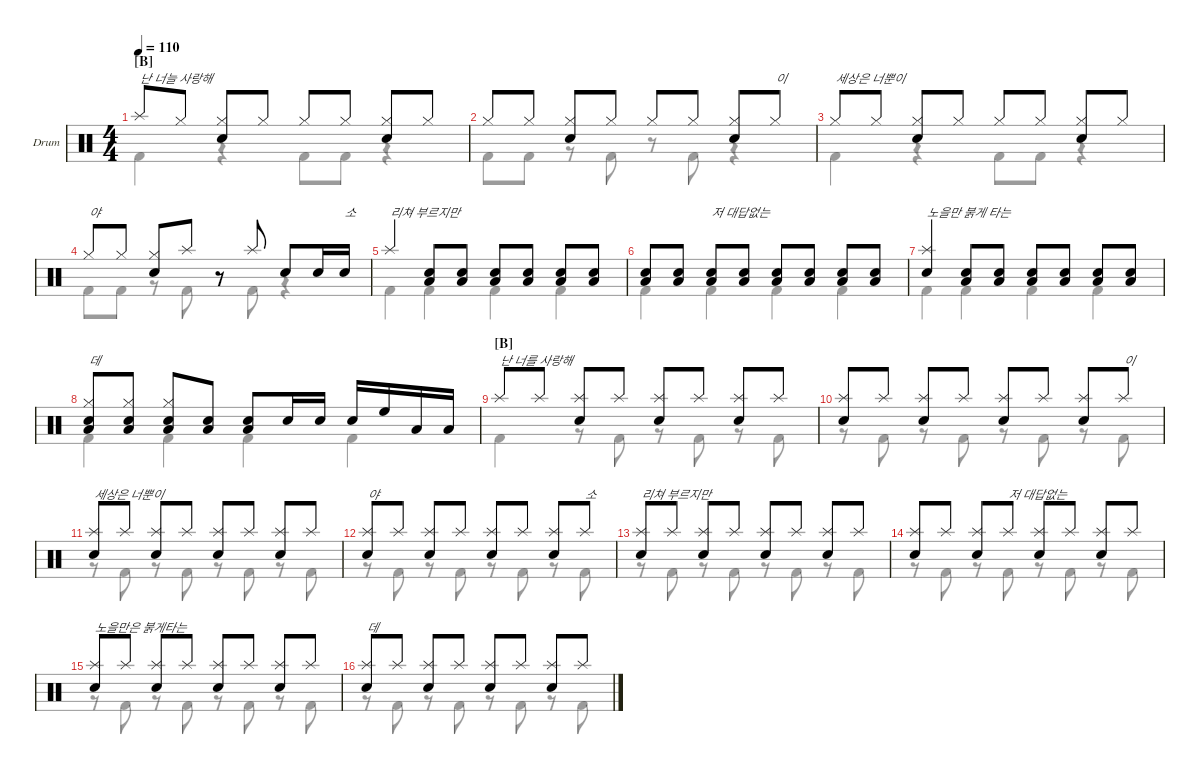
\defaultSystemsLayout 4
\hideDynamics
\bracketExtendMode nobrackets
\firstSystemTrackNameOrientation horizontal
\track ("Drumkit" "Drum") {instrument percussion}
\staff {score}
\articulation defaults
\voice
\ts (4 4)
\section ("B" "")
\tempo 110
\clef neutral
\ks c "Splash (hit)".8{txt "난 너늘 사랑해" dy mf beam Up} "Hi-Hat (closed)".8{beam Up}
("Hi-Hat (closed)" "Snare (hit) 2").8{beam Up} "Hi-Hat (closed)".8{beam Up} "Hi-Hat (closed)".8{beam Up} "Hi-Hat (closed)".8{beam Up} ("Hi-Hat (closed)" "Snare (hit) 2").8{beam Up} "Hi-Hat (closed)".8{beam Up} |
"Hi-Hat (closed)".8{beam Up} "Hi-Hat (closed)".8{beam Up} ("Hi-Hat (closed)" "Snare (hit) 2").8{beam Up} "Hi-Hat (closed)".8{beam Up} "Hi-Hat (closed)".8{beam Up} "Hi-Hat (closed)".8{beam Up} ("Hi-Hat (closed)" "Snare (hit) 2").8{beam Up} "Hi-Hat (closed)".8{txt "이" beam Up} |
"Hi-Hat (closed)".8{txt "세상은 너뿐이" beam Up} "Hi-Hat (closed)".8{beam Up} ("Hi-Hat (closed)" "Snare (hit) 2").8{beam Up} "Hi-Hat (closed)".8{beam Up} "Hi-Hat (closed)".8{beam Up} "Hi-Hat (closed)".8{beam Up} ("Hi-Hat (closed)" "Snare (hit) 2").8{beam Up} "Hi-Hat (closed)".8{beam Up} |
"Hi-Hat (closed)".8{txt "야" beam Up} "Hi-Hat (closed)".8{beam Up} ("Hi-Hat (closed)" "Snare (hit) 2").8{beam Up} "Splash (hit)".8{beam Up} r.8{beam Up} "Splash (hit)".8{beam Up} "Snare (hit) 2".8{beam Up} "Snare (hit) 2".16{beam Up} "Snare (hit) 2".16{txt "소" beam Up} |
"Splash (hit)".4{txt "리쳐 부르지만" beam Up} ("Snare (hit) 2" "Low Tom (hit)").8{beam Up} ("Snare (hit) 2" "Low Tom (hit)").8{beam Up} ("Snare (hit) 2" "Low Tom (hit)").8{beam Up} ("Snare (hit) 2" "Low Tom (hit)").8{beam Up} ("Snare (hit) 2" "Low Tom (hit)").8{beam Up} ("Snare (hit) 2" "Low Tom (hit)").8{beam Up} |
("Low Tom (hit)" "Snare (hit) 2").8{beam Up} ("Low Tom (hit)" "Snare (hit) 2").8{beam Up} ("Snare (hit) 2" "Low Tom (hit)").8{txt "저 대답없는" beam Up} ("Low Tom (hit)" "Snare (hit) 2").8{beam Up} ("Low Tom (hit)" "Snare (hit) 2").8{beam Up} ("Snare (hit) 2" "Low Tom (hit)").8{beam Up} ("Snare (hit) 2" "Low Tom (hit)").8{beam Up} ("Snare (hit) 2" "Low Tom (hit)").8{beam Up} |
("Splash (hit)" "Snare (hit) 2").4{txt "노을만 붉게 타는" beam Up} ("Snare (hit) 2" "Low Tom (hit)").8{beam Up} ("Snare (hit) 2" "Low Tom (hit)").8{beam Up} ("Snare (hit) 2" "Low Tom (hit)").8{beam Up} ("Snare (hit) 2" "Low Tom (hit)").8{beam Up} ("Snare (hit) 2" "Low Tom (hit)").8{beam Up} ("Snare (hit) 2" "Low Tom (hit)").8{beam Up} |
("Hi-Hat (closed)" "Snare (hit) 2" "Low Tom (hit)").8{txt "데" beam Up} ("Hi-Hat (closed)" "Snare (hit) 2" "Low Tom (hit)").8{beam Up} ("Hi-Hat (closed)" "Snare (hit) 2" "Low Tom (hit)").8{beam Up} ("Snare (hit) 2" "Low Tom (hit)").8{beam Up} ("Snare (hit) 2" "Low Tom (hit)").8{beam Up} "Snare (hit) 2".16{beam Up} "Snare (hit) 2".16{beam Up} "Snare (hit) 2".16{beam Up} "High Floor Tom (hit)".16{beam Up} "Low Tom (hit)".16{beam Up} "Low Tom (hit)".16{beam Up} |
\section ("B" "")
"Splash (hit)".8{txt "난 너를 사랑해" beam Up} "Splash (hit)".8{beam Up} ("Splash (hit)" "Snare (hit) 2").8{beam Up} "Splash (hit)".8{beam Up} ("Splash (hit)" "Snare (hit) 2").8{beam Up} "Splash (hit)".8{beam Up} ("Splash (hit)" "Snare (hit) 2").8{beam Up} "Splash (hit)".8{beam Up} |
("Splash (hit)" "Snare (hit) 2").8{beam Up} "Splash (hit)".8{beam Up} ("Splash (hit)" "Snare (hit) 2").8{beam Up} "Splash (hit)".8{beam Up} ("Splash (hit)" "Snare (hit) 2").8{beam Up} "Splash (hit)".8{beam Up} ("Splash (hit)" "Snare (hit) 2").8{beam Up} "Splash (hit)".8{txt "이" beam Up} |
("Splash (hit)" "Snare (hit) 2").8{txt "세상은 너뿐이" beam Up} "Splash (hit)".8{beam Up} ("Splash (hit)" "Snare (hit) 2").8{beam Up} "Splash (hit)".8{beam Up} ("Splash (hit)" "Snare (hit) 2").8{beam Up} "Splash (hit)".8{beam Up} ("Splash (hit)" "Snare (hit) 2").8{beam Up} "Splash (hit)".8{beam Up} |
("Splash (hit)" "Snare (hit) 2").8{txt "야" beam Up} "Splash (hit)".8{beam Up} ("Splash (hit)" "Snare (hit) 2").8{beam Up} "Splash (hit)".8{beam Up} ("Splash (hit)" "Snare (hit) 2").8{beam Up} "Splash (hit)".8{beam Up} ("Splash (hit)" "Snare (hit) 2").8{beam Up} "Splash (hit)".8{txt "소" beam Up} |
("Splash (hit)" "Snare (hit) 2").8{txt "리쳐 부르지만" beam Up} "Splash (hit)".8{beam Up} ("Splash (hit)" "Snare (hit) 2").8{beam Up} "Splash (hit)".8{beam Up} ("Splash (hit)" "Snare (hit) 2").8{beam Up} "Splash (hit)".8{beam Up} ("Splash (hit)" "Snare (hit) 2").8{beam Up} "Splash (hit)".8{beam Up} |
("Splash (hit)" "Snare (hit) 2").8{beam Up} "Splash (hit)".8{beam Up} ("Splash (hit)" "Snare (hit) 2").8{beam Up} "Splash (hit)".8{txt "저 대답없는" beam Up} ("Splash (hit)" "Snare (hit) 2").8{beam Up} "Splash (hit)".8{beam Up} ("Splash (hit)" "Snare (hit) 2").8{beam Up} "Splash (hit)".8{beam Up} |
("Splash (hit)" "Snare (hit) 2").8{txt "노을만은 붉게타는" beam Up} "Splash (hit)".8{beam Up} ("Splash (hit)" "Snare (hit) 2").8{beam Up} "Splash (hit)".8{beam Up} ("Splash (hit)" "Snare (hit) 2").8{beam Up} "Splash (hit)".8{beam Up} ("Splash (hit)" "Snare (hit) 2").8{beam Up} "Splash (hit)".8{beam Up} |
("Splash (hit)" "Snare (hit) 2").8{txt "데" beam Up} "Splash (hit)".8{beam Up} ("Splash (hit)" "Snare (hit) 2").8{beam Up} "Splash (hit)".8{beam Up} ("Splash (hit)" "Snare (hit) 2").8{beam Up} "Splash (hit)".8{beam Up} ("Splash (hit)" "Snare (hit) 2").8{beam Up} "Splash (hit)".8{beam Up}
\voice
\clef neutral
\ottava regular
\simile none
\ks c
|
|
|
|
|
|
|
|
|
|
|
|
|
|
|
\voice
\clef neutral
\ottava regular
\simile none
\ks c "Kick (hit) 2".4{dy mf beam Down}
r.4{beam Down} "Kick (hit) 2".8{beam Down} "Kick (hit) 2".8{beam Down} r.4{beam Down} |
"Kick (hit) 2".8{beam Down} "Kick (hit) 2".8{beam Down} r.8{beam Down} "Kick (hit) 2".8{beam Down} r.8{beam Down} "Kick (hit) 2".8{beam Down} r.4{beam Down} |
"Kick (hit) 2".4{beam Down} r.4{beam Down} "Kick (hit) 2".8{beam Down} "Kick (hit) 2".8{beam Down} r.4{beam Down} |
"Kick (hit) 2".8{beam Down} "Kick (hit) 2".8{beam Down} r.8{beam Down} "Kick (hit) 2".8{beam Down} r.8{beam Down} "Kick (hit) 2".8{beam Down} r.4{beam Down} |
"Kick (hit) 2".4{beam Down} "Kick (hit) 2".4{beam Down} "Kick (hit) 2".4{beam Down} "Kick (hit) 2".4{beam Down} |
"Kick (hit) 2".4{beam Down} "Kick (hit) 2".4{beam Down} "Kick (hit) 2".4{beam Down} "Kick (hit) 2".4{beam Down} |
"Kick (hit) 2".4{beam Down} "Kick (hit) 2".4{beam Down} "Kick (hit) 2".4{beam Down} "Kick (hit) 2".4{beam Down} |
"Kick (hit) 2".4{beam Down} "Kick (hit) 2".4{beam Down} "Kick (hit) 2".4{beam Down} "Kick (hit) 2".4{beam Down} |
"Kick (hit) 2".4{beam Down} r.8{beam Down} "Kick (hit) 2".8{beam Down} r.8{beam Down} "Kick (hit) 2".8{beam Down} r.8{beam Down} "Kick (hit) 2".8{beam Down} |
r.8{beam Down} "Kick (hit) 2".8{beam Down} r.8{beam Down} "Kick (hit) 2".8{beam Down} r.8{beam Down} "Kick (hit) 2".8{beam Down} r.8{beam Down} "Kick (hit) 2".8{beam Down} |
r.8{beam Down} "Kick (hit) 2".8{beam Down} r.8{beam Down} "Kick (hit) 2".8{beam Down} r.8{beam Down} "Kick (hit) 2".8{beam Down} r.8{beam Down} "Kick (hit) 2".8{beam Down} |
r.8{beam Down} "Kick (hit) 2".8{beam Down} r.8{beam Down} "Kick (hit) 2".8{beam Down} r.8{beam Down} "Kick (hit) 2".8{beam Down} r.8{beam Down} "Kick (hit) 2".8{beam Down} |
r.8{beam Down} "Kick (hit) 2".8{beam Down} r.8{beam Down} "Kick (hit) 2".8{beam Down} r.8{beam Down} "Kick (hit) 2".8{beam Down} r.8{beam Down} "Kick (hit) 2".8{beam Down} |
r.8{beam Down} "Kick (hit) 2".8{beam Down} r.8{beam Down} "Kick (hit) 2".8{beam Down} r.8{beam Down} "Kick (hit) 2".8{beam Down} r.8{beam Down} "Kick (hit) 2".8{beam Down} |
r.8{beam Down} "Kick (hit) 2".8{beam Down} r.8{beam Down} "Kick (hit) 2".8{beam Down} r.8{beam Down} "Kick (hit) 2".8{beam Down} r.8{beam Down} "Kick (hit) 2".8{beam Down} |
r.8{beam Down} "Kick (hit) 2".8{beam Down} r.8{beam Down} "Kick (hit) 2".8{beam Down} r.8{beam Down} "Kick (hit) 2".8{beam Down} r.8{beam Down} "Kick (hit) 2".8{beam Down}
